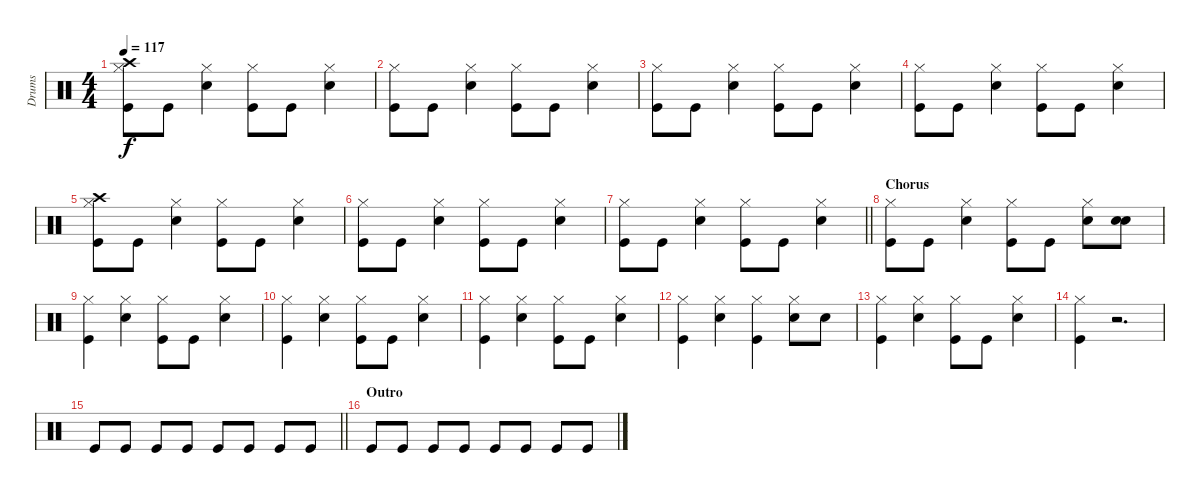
\track ("Drums" "Drums") {instrument percussion}
\staff {score}
\articulation defaults
\ts (4 4)
\tempo 117
\clef neutral
\ks c
("Crash high (hit)" "Kick (hit)" "Hi-Hat (closed)").8{dy f} "Kick (hit)".8 ("Electric Snare (hit)" "Hi-Hat (closed)").4 ("Kick (hit)" "Hi-Hat (closed)").8 "Kick (hit)".8 ("Electric Snare (hit)" "Hi-Hat (closed)").4 |
("Kick (hit)" "Hi-Hat (closed)").8 "Kick (hit)".8 ("Electric Snare (hit)" "Hi-Hat (closed)").4 ("Kick (hit)" "Hi-Hat (closed)").8 "Kick (hit)".8 ("Electric Snare (hit)" "Hi-Hat (closed)").4 |
("Kick (hit)" "Hi-Hat (closed)").8 "Kick (hit)".8 ("Electric Snare (hit)" "Hi-Hat (closed)").4 ("Kick (hit)" "Hi-Hat (closed)").8 "Kick (hit)".8 ("Electric Snare (hit)" "Hi-Hat (closed)").4 |
("Kick (hit)" "Hi-Hat (closed)").8 "Kick (hit)".8 ("Electric Snare (hit)" "Hi-Hat (closed)").4 ("Kick (hit)" "Hi-Hat (closed)").8 "Kick (hit)".8 ("Electric Snare (hit)" "Hi-Hat (closed)").4 |
("Crash high (hit)" "Kick (hit)" "Hi-Hat (closed)").8 "Kick (hit)".8 ("Electric Snare (hit)" "Hi-Hat (closed)").4 ("Kick (hit)" "Hi-Hat (closed)").8 "Kick (hit)".8 ("Electric Snare (hit)" "Hi-Hat (closed)").4 |
("Kick (hit)" "Hi-Hat (closed)").8 "Kick (hit)".8 ("Electric Snare (hit)" "Hi-Hat (closed)").4 ("Kick (hit)" "Hi-Hat (closed)").8 "Kick (hit)".8 ("Electric Snare (hit)" "Hi-Hat (closed)").4 |
\barLineRight lightlight
("Kick (hit)" "Hi-Hat (closed)").8 "Kick (hit)".8 ("Electric Snare (hit)" "Hi-Hat (closed)").4 ("Kick (hit)" "Hi-Hat (closed)").8 "Kick (hit)".8 ("Electric Snare (hit)" "Hi-Hat (closed)").4 |
\section ("" "Chorus")
("Kick (hit)" "Hi-Hat (closed)").8 "Kick (hit)".8 ("Electric Snare (hit)" "Hi-Hat (closed)").4 ("Kick (hit)" "Hi-Hat (closed)").8 "Kick (hit)".8 ("Electric Snare (hit)" "Hi-Hat (closed)").8 ("Electric Snare (hit)" "Electric Snare (hit)").8 |
("Kick (hit)" "Hi-Hat (closed)").4 ("Electric Snare (hit)" "Hi-Hat (closed)").4 ("Kick (hit)" "Hi-Hat (closed)").8 "Kick (hit)".8 ("Electric Snare (hit)" "Hi-Hat (closed)").4 |
("Kick (hit)" "Hi-Hat (closed)").4 ("Electric Snare (hit)" "Hi-Hat (closed)").4 ("Kick (hit)" "Hi-Hat (closed)").8 "Kick (hit)".8 ("Electric Snare (hit)" "Hi-Hat (closed)").4 |
("Kick (hit)" "Hi-Hat (closed)").4 ("Electric Snare (hit)" "Hi-Hat (closed)").4 ("Kick (hit)" "Hi-Hat (closed)").8 "Kick (hit)".8 ("Electric Snare (hit)" "Hi-Hat (closed)").4 |
("Kick (hit)" "Hi-Hat (closed)").4 ("Electric Snare (hit)" "Hi-Hat (closed)").4 ("Kick (hit)" "Hi-Hat (closed)").4 ("Electric Snare (hit)" "Hi-Hat (closed)").8 "Electric Snare (hit)".8 |
("Kick (hit)" "Hi-Hat (closed)").4 ("Electric Snare (hit)" "Hi-Hat (closed)").4 ("Kick (hit)" "Hi-Hat (closed)").8 "Kick (hit)".8 ("Electric Snare (hit)" "Hi-Hat (closed)").4 |
("Kick (hit)" "Hi-Hat (closed)").4 r.2{d} |
\barLineRight lightlight "Kick (hit)".8 "Kick (hit)".8 "Kick (hit)".8 "Kick (hit)".8 "Kick (hit)".8 "Kick (hit)".8 "Kick (hit)".8 "Kick (hit)".8
|
\section ("" "Outro")
"Kick (hit)".8 "Kick (hit)".8 "Kick (hit)".8 "Kick (hit)".8 "Kick (hit)".8 "Kick (hit)".8 "Kick (hit)".8 "Kick (hit)".8
